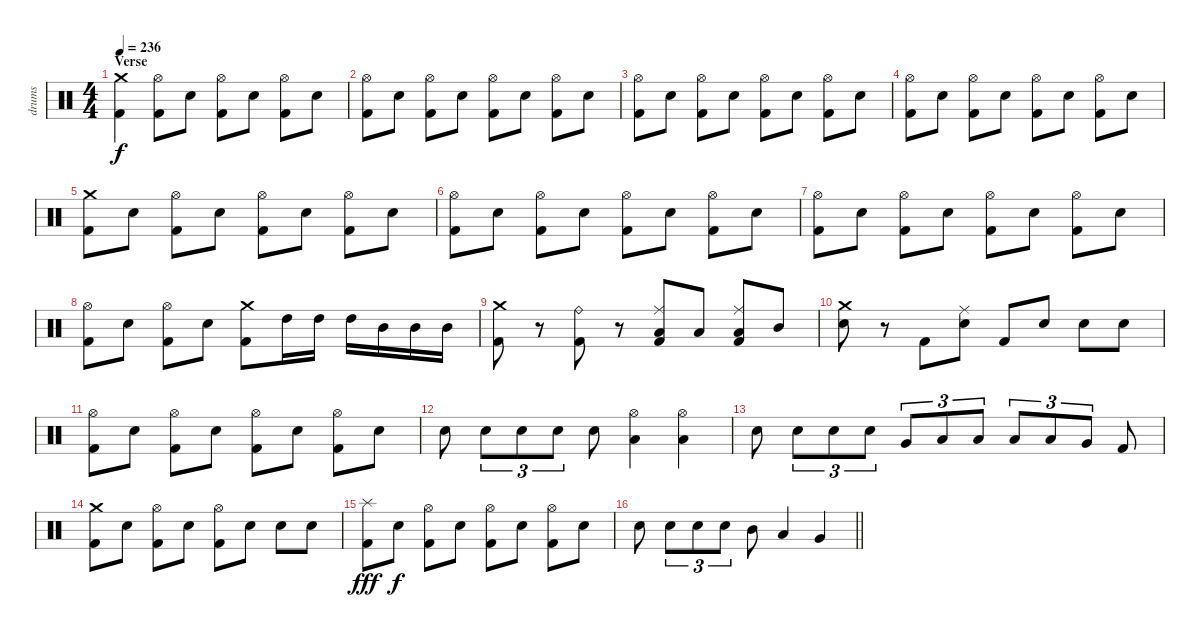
\track ("drums" "drums") {instrument percussion}
\staff {score}
\articulation defaults
\ts (4 4)
\section ("" "Verse")
\tempo 236
\clef neutral
\ks c
("Crash medium (hit)" "Kick (hit) 2").4{dy f} ("Hi-Hat (open)" "Kick (hit) 2").8 "Electric Snare (hit)".8 ("Hi-Hat (open)" "Kick (hit) 2").8 "Electric Snare (hit)".8 ("Hi-Hat (open)" "Kick (hit) 2").8 "Electric Snare (hit)".8 |
("Hi-Hat (open)" "Kick (hit) 2").8 "Electric Snare (hit)".8 ("Hi-Hat (open)" "Kick (hit) 2").8 "Electric Snare (hit)".8 ("Hi-Hat (open)" "Kick (hit) 2").8 "Electric Snare (hit)".8 ("Hi-Hat (open)" "Kick (hit) 2").8 "Electric Snare (hit)".8 |
("Hi-Hat (open)" "Kick (hit) 2").8 "Electric Snare (hit)".8 ("Hi-Hat (open)" "Kick (hit) 2").8 "Electric Snare (hit)".8 ("Hi-Hat (open)" "Kick (hit) 2").8 "Electric Snare (hit)".8 ("Hi-Hat (open)" "Kick (hit) 2").8 "Electric Snare (hit)".8 |
("Hi-Hat (open)" "Kick (hit) 2").8 "Electric Snare (hit)".8 ("Hi-Hat (open)" "Kick (hit) 2").8 "Electric Snare (hit)".8 ("Hi-Hat (open)" "Kick (hit) 2").8 "Electric Snare (hit)".8 ("Hi-Hat (open)" "Kick (hit) 2").8 "Electric Snare (hit)".8 |
("Crash medium (hit)" "Kick (hit) 2").8 "Electric Snare (hit)".8 ("Hi-Hat (open)" "Kick (hit) 2").8 "Electric Snare (hit)".8 ("Hi-Hat (open)" "Kick (hit) 2").8 "Electric Snare (hit)".8 ("Hi-Hat (open)" "Kick (hit) 2").8 "Electric Snare (hit)".8 |
("Hi-Hat (open)" "Kick (hit) 2").8 "Electric Snare (hit)".8 ("Hi-Hat (open)" "Kick (hit) 2").8 "Electric Snare (hit)".8 ("Hi-Hat (open)" "Kick (hit) 2").8 "Electric Snare (hit)".8 ("Hi-Hat (open)" "Kick (hit) 2").8 "Electric Snare (hit)".8 |
("Hi-Hat (open)" "Kick (hit) 2").8 "Electric Snare (hit)".8 ("Hi-Hat (open)" "Kick (hit) 2").8 "Electric Snare (hit)".8 ("Hi-Hat (open)" "Kick (hit) 2").8 "Electric Snare (hit)".8 ("Hi-Hat (open)" "Kick (hit) 2").8 "Electric Snare (hit)".8 |
("Hi-Hat (open)" "Kick (hit) 2").8 "Electric Snare (hit)".8 ("Hi-Hat (open)" "Kick (hit) 2").8 "Electric Snare (hit)".8 ("Crash medium (hit)" "Kick (hit) 2").8 "High Tom (hit)".16 "High Tom (hit)".16 "High Tom (hit)".16 "Mid Tom (hit)".16 "Mid Tom (hit)".16 "Mid Tom (hit)".16 |
("Crash medium (hit)" "Kick (hit) 2").8 r.8 ("Ride (bell)" "Kick (hit) 2").8 r.8 ("Ride (middle)" "Low Tom (hit)" "Kick (hit) 2").8 "Low Tom (hit)".8 ("Ride (middle)" "Low Tom (hit)" "Kick (hit) 2").8 "Mid Tom (hit)".8 |
("Crash medium (hit)" "Electric Snare (hit)").8 r.8 "Kick (hit) 2".8 ("Ride (middle)" "Electric Snare (hit)").8 "Kick (hit) 2".8 "Electric Snare (hit)".8 "Electric Snare (hit)".8 "Electric Snare (hit)".8 |
("Hi-Hat (open)" "Kick (hit) 2").8 "Electric Snare (hit)".8 ("Hi-Hat (open)" "Kick (hit) 2").8 "Electric Snare (hit)".8 ("Hi-Hat (open)" "Kick (hit) 2").8 "Electric Snare (hit)".8 ("Hi-Hat (open)" "Kick (hit) 2").8 "Electric Snare (hit)".8 |
"Electric Snare (hit)".8 "Electric Snare (hit)".8{tu (3 2)} "Electric Snare (hit)".8{tu (3 2)} "Electric Snare (hit)".8{tu (3 2)} "Electric Snare (hit)".8 ("Hi-Hat (open)" "Low Tom (hit)").4 ("Hi-Hat (open)" "Low Tom (hit)").4 |
"Electric Snare (hit)".8 "Electric Snare (hit)".8{tu (3 2)} "Electric Snare (hit)".8{tu (3 2)} "Electric Snare (hit)".8{tu (3 2)} "Very Low Tom (hit)".8{tu (3 2)} "Low Tom (hit)".8{tu (3 2)} "Low Tom (hit)".8{tu (3 2)} "Low Tom (hit)".8{tu (3 2)} "Low Tom (hit)".8{tu (3 2)} "Very Low Tom (hit)".8{tu (3 2)} "Kick (hit) 2".8 |
("Crash medium (hit)" "Kick (hit) 2").8 "Electric Snare (hit)".8 ("Hi-Hat (open)" "Kick (hit) 2").8 "Electric Snare (hit)".8 ("Hi-Hat (open)" "Kick (hit) 2").8 "Electric Snare (hit)".8 "Electric Snare (hit)".8 "Electric Snare (hit)".8 |
("Splash (hit)" "Kick (hit) 2").8{dy fff} "Electric Snare (hit)".8{dy f} ("Hi-Hat (open)" "Kick (hit) 2").8 "Electric Snare (hit)".8 ("Hi-Hat (open)" "Kick (hit) 2").8 "Electric Snare (hit)".8 ("Hi-Hat (open)" "Kick (hit) 2").8 "Electric Snare (hit)".8 |
\barLineRight lightlight "Electric Snare (hit)".8 "Electric Snare (hit)".8{tu (3 2)} "Electric Snare (hit)".8{tu (3 2)} "Electric Snare (hit)".8{tu (3 2)} "Mid Tom (hit)".8 "Low Tom (hit)".4 "Very Low Tom (hit)".4
